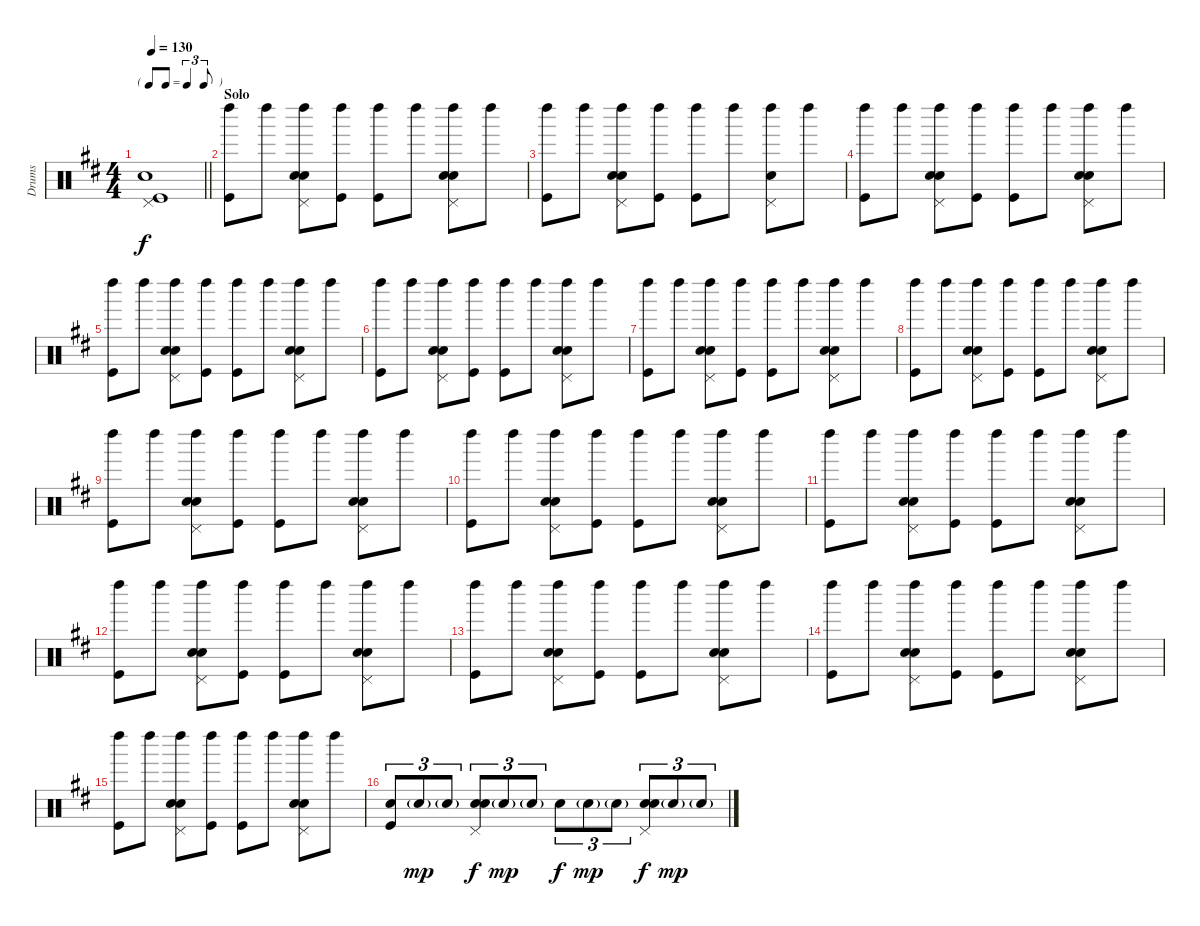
\track ("Drums" "Drums") {instrument percussion}
\staff {score}
\articulation defaults
\ts (4 4)
\tf triplet8th
\tempo 130
\clef neutral
\barLineRight lightlight
\ks d
("Pedal Hi-Hat (hit)" "Snare (hit) 2" "Kick (hit)").1{dy f} |
\section ("" "Solo")
("Left Maraca (hit)" "Kick (hit)").8 "Left Maraca (hit)".8 ("Left Maraca (hit)" "Pedal Hi-Hat (hit)" "Snare (hit) 2" "Hand Clap (hit)").8 ("Left Maraca (hit)" "Kick (hit)").8 ("Left Maraca (hit)" "Kick (hit)").8 "Left Maraca (hit)".8 ("Left Maraca (hit)" "Pedal Hi-Hat (hit)" "Snare (hit) 2" "Hand Clap (hit)").8 "Left Maraca (hit)".8 |
("Left Maraca (hit)" "Kick (hit)").8 "Left Maraca (hit)".8 ("Left Maraca (hit)" "Pedal Hi-Hat (hit)" "Snare (hit) 2" "Hand Clap (hit)").8 ("Left Maraca (hit)" "Kick (hit)").8 ("Left Maraca (hit)" "Kick (hit)").8 "Left Maraca (hit)".8 ("Left Maraca (hit)" "Pedal Hi-Hat (hit)" "Snare (hit) 2").8 "Left Maraca (hit)".8 |
("Left Maraca (hit)" "Kick (hit)").8 "Left Maraca (hit)".8 ("Left Maraca (hit)" "Pedal Hi-Hat (hit)" "Snare (hit) 2" "Hand Clap (hit)").8 ("Left Maraca (hit)" "Kick (hit)").8 ("Left Maraca (hit)" "Kick (hit)").8 "Left Maraca (hit)".8 ("Left Maraca (hit)" "Pedal Hi-Hat (hit)" "Snare (hit) 2" "Hand Clap (hit)").8 "Left Maraca (hit)".8 |
("Left Maraca (hit)" "Kick (hit)").8 "Left Maraca (hit)".8 ("Left Maraca (hit)" "Pedal Hi-Hat (hit)" "Snare (hit) 2" "Hand Clap (hit)").8 ("Left Maraca (hit)" "Kick (hit)").8 ("Left Maraca (hit)" "Kick (hit)").8 "Left Maraca (hit)".8 ("Left Maraca (hit)" "Pedal Hi-Hat (hit)" "Snare (hit) 2" "Hand Clap (hit)").8 "Left Maraca (hit)".8 |
("Left Maraca (hit)" "Kick (hit)").8 "Left Maraca (hit)".8 ("Left Maraca (hit)" "Pedal Hi-Hat (hit)" "Snare (hit) 2" "Hand Clap (hit)").8 ("Left Maraca (hit)" "Kick (hit)").8 ("Left Maraca (hit)" "Kick (hit)").8 "Left Maraca (hit)".8 ("Left Maraca (hit)" "Pedal Hi-Hat (hit)" "Snare (hit) 2" "Hand Clap (hit)").8 "Left Maraca (hit)".8 |
("Left Maraca (hit)" "Kick (hit)").8 "Left Maraca (hit)".8 ("Left Maraca (hit)" "Pedal Hi-Hat (hit)" "Snare (hit) 2" "Hand Clap (hit)").8 ("Left Maraca (hit)" "Kick (hit)").8 ("Left Maraca (hit)" "Kick (hit)").8 "Left Maraca (hit)".8 ("Left Maraca (hit)" "Pedal Hi-Hat (hit)" "Snare (hit) 2" "Hand Clap (hit)").8 "Left Maraca (hit)".8 |
("Left Maraca (hit)" "Kick (hit)").8 "Left Maraca (hit)".8 ("Left Maraca (hit)" "Pedal Hi-Hat (hit)" "Snare (hit) 2" "Hand Clap (hit)").8 ("Left Maraca (hit)" "Kick (hit)").8 ("Left Maraca (hit)" "Kick (hit)").8 "Left Maraca (hit)".8 ("Left Maraca (hit)" "Pedal Hi-Hat (hit)" "Snare (hit) 2" "Hand Clap (hit)").8 "Left Maraca (hit)".8 |
("Left Maraca (hit)" "Kick (hit)").8 "Left Maraca (hit)".8 ("Left Maraca (hit)" "Pedal Hi-Hat (hit)" "Snare (hit) 2" "Hand Clap (hit)").8 ("Left Maraca (hit)" "Kick (hit)").8 ("Left Maraca (hit)" "Kick (hit)").8 "Left Maraca (hit)".8 ("Left Maraca (hit)" "Pedal Hi-Hat (hit)" "Snare (hit) 2" "Hand Clap (hit)").8 "Left Maraca (hit)".8 |
("Left Maraca (hit)" "Kick (hit)").8 "Left Maraca (hit)".8 ("Left Maraca (hit)" "Pedal Hi-Hat (hit)" "Snare (hit) 2" "Hand Clap (hit)").8 ("Left Maraca (hit)" "Kick (hit)").8 ("Left Maraca (hit)" "Kick (hit)").8 "Left Maraca (hit)".8 ("Left Maraca (hit)" "Pedal Hi-Hat (hit)" "Snare (hit) 2" "Hand Clap (hit)").8 "Left Maraca (hit)".8 |
("Left Maraca (hit)" "Kick (hit)").8 "Left Maraca (hit)".8 ("Left Maraca (hit)" "Pedal Hi-Hat (hit)" "Snare (hit) 2" "Hand Clap (hit)").8 ("Left Maraca (hit)" "Kick (hit)").8 ("Left Maraca (hit)" "Kick (hit)").8 "Left Maraca (hit)".8 ("Left Maraca (hit)" "Pedal Hi-Hat (hit)" "Snare (hit) 2" "Hand Clap (hit)").8 "Left Maraca (hit)".8 |
("Left Maraca (hit)" "Kick (hit)").8 "Left Maraca (hit)".8 ("Left Maraca (hit)" "Pedal Hi-Hat (hit)" "Snare (hit) 2" "Hand Clap (hit)").8 ("Left Maraca (hit)" "Kick (hit)").8 ("Left Maraca (hit)" "Kick (hit)").8 "Left Maraca (hit)".8 ("Left Maraca (hit)" "Pedal Hi-Hat (hit)" "Snare (hit) 2" "Hand Clap (hit)").8 "Left Maraca (hit)".8 |
("Left Maraca (hit)" "Kick (hit)").8 "Left Maraca (hit)".8 ("Left Maraca (hit)" "Pedal Hi-Hat (hit)" "Snare (hit) 2" "Hand Clap (hit)").8 ("Left Maraca (hit)" "Kick (hit)").8 ("Left Maraca (hit)" "Kick (hit)").8 "Left Maraca (hit)".8 ("Left Maraca (hit)" "Pedal Hi-Hat (hit)" "Snare (hit) 2" "Hand Clap (hit)").8 "Left Maraca (hit)".8 |
("Left Maraca (hit)" "Kick (hit)").8 "Left Maraca (hit)".8 ("Left Maraca (hit)" "Pedal Hi-Hat (hit)" "Snare (hit) 2" "Hand Clap (hit)").8 ("Left Maraca (hit)" "Kick (hit)").8 ("Left Maraca (hit)" "Kick (hit)").8 "Left Maraca (hit)".8 ("Left Maraca (hit)" "Pedal Hi-Hat (hit)" "Snare (hit) 2" "Hand Clap (hit)").8 "Left Maraca (hit)".8 |
("Left Maraca (hit)" "Kick (hit)").8 "Left Maraca (hit)".8 ("Left Maraca (hit)" "Pedal Hi-Hat (hit)" "Snare (hit) 2" "Hand Clap (hit)").8 ("Left Maraca (hit)" "Kick (hit)").8 ("Left Maraca (hit)" "Kick (hit)").8 "Left Maraca (hit)".8 ("Left Maraca (hit)" "Pedal Hi-Hat (hit)" "Snare (hit) 2" "Hand Clap (hit)").8 "Left Maraca (hit)".8 |
("Snare (hit) 2" "Kick (hit)").8{tu (3 2)} "Snare (hit) 2"{g}.8{tu (3 2) dy mp} "Snare (hit) 2"{g}.8{tu (3 2)} ("Pedal Hi-Hat (hit)" "Snare (hit) 2" "Hand Clap (hit)").8{tu (3 2) dy f} "Snare (hit) 2"{g}.8{tu (3 2) dy mp} "Snare (hit) 2"{g}.8{tu (3 2)} "Snare (hit) 2".8{tu (3 2) dy f} "Snare (hit) 2"{g}.8{tu (3 2) dy mp} "Snare (hit) 2"{g}.8{tu (3 2)} ("Pedal Hi-Hat (hit)" "Snare (hit) 2" "Hand Clap (hit)").8{tu (3 2) dy f} "Snare (hit) 2"{g}.8{tu (3 2) dy mp} "Snare (hit) 2"{g}.8{tu (3 2)}
